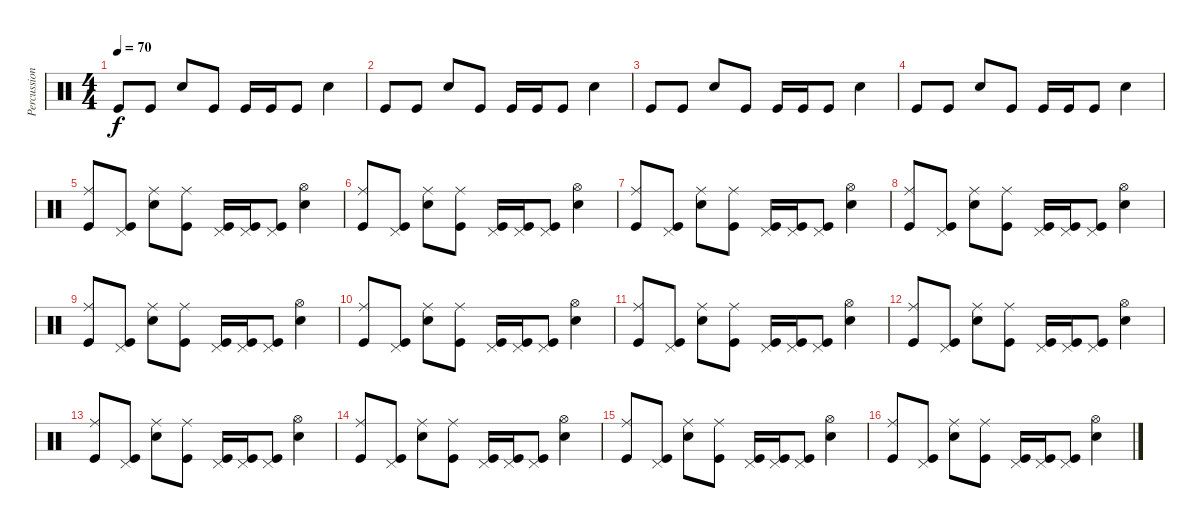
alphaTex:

\track ("Percussion" "Percussion") {instrument percussion}
\staff {score}
\articulation defaults
\ts (4 4)
\tempo 70
\clef neutral
\ks c "Kick (hit)".8{dy f} "Kick (hit)".8 "Hand Clap (hit)".8 "Kick (hit)".8 "Kick (hit)".16 "Kick (hit)".16 "Kick (hit)".8 "Hand Clap (hit)".4
|
"Kick (hit)".8 "Kick (hit)".8 "Hand Clap (hit)".8 "Kick (hit)".8 "Kick (hit)".16 "Kick (hit)".16 "Kick (hit)".8 "Hand Clap (hit)".4 |
"Kick (hit)".8 "Kick (hit)".8 "Hand Clap (hit)".8 "Kick (hit)".8 "Kick (hit)".16 "Kick (hit)".16 "Kick (hit)".8 "Hand Clap (hit)".4 |
"Kick (hit)".8 "Kick (hit)".8 "Hand Clap (hit)".8 "Kick (hit)".8 "Kick (hit)".16 "Kick (hit)".16 "Kick (hit)".8 "Hand Clap (hit)".4 |
("Kick (hit)" "Ride (middle)").8 ("Kick (hit)" "Pedal Hi-Hat (hit)").8 ("Hand Clap (hit)" "Ride (middle)").8 ("Kick (hit)" "Ride (middle)").8 ("Kick (hit)" "Pedal Hi-Hat (hit)").16 ("Kick (hit)" "Pedal Hi-Hat (hit)").16 ("Kick (hit)" "Pedal Hi-Hat (hit)").8 ("Hand Clap (hit)" "Hi-Hat (open)").4 |
("Kick (hit)" "Ride (middle)").8 ("Kick (hit)" "Pedal Hi-Hat (hit)").8 ("Hand Clap (hit)" "Ride (middle)").8 ("Kick (hit)" "Ride (middle)").8 ("Kick (hit)" "Pedal Hi-Hat (hit)").16 ("Kick (hit)" "Pedal Hi-Hat (hit)").16 ("Kick (hit)" "Pedal Hi-Hat (hit)").8 ("Hand Clap (hit)" "Hi-Hat (open)").4 |
("Kick (hit)" "Ride (middle)").8 ("Kick (hit)" "Pedal Hi-Hat (hit)").8 ("Hand Clap (hit)" "Ride (middle)").8 ("Kick (hit)" "Ride (middle)").8 ("Kick (hit)" "Pedal Hi-Hat (hit)").16 ("Kick (hit)" "Pedal Hi-Hat (hit)").16 ("Kick (hit)" "Pedal Hi-Hat (hit)").8 ("Hand Clap (hit)" "Hi-Hat (open)").4 |
("Kick (hit)" "Ride (middle)").8 ("Kick (hit)" "Pedal Hi-Hat (hit)").8 ("Hand Clap (hit)" "Ride (middle)").8 ("Kick (hit)" "Ride (middle)").8 ("Kick (hit)" "Pedal Hi-Hat (hit)").16 ("Kick (hit)" "Pedal Hi-Hat (hit)").16 ("Kick (hit)" "Pedal Hi-Hat (hit)").8 ("Hand Clap (hit)" "Hi-Hat (open)").4 |
("Kick (hit)" "Ride (middle)").8 ("Kick (hit)" "Pedal Hi-Hat (hit)").8 ("Hand Clap (hit)" "Ride (middle)").8 ("Kick (hit)" "Ride (middle)").8 ("Kick (hit)" "Pedal Hi-Hat (hit)").16 ("Kick (hit)" "Pedal Hi-Hat (hit)").16 ("Kick (hit)" "Pedal Hi-Hat (hit)").8 ("Hand Clap (hit)" "Hi-Hat (open)").4 |
("Kick (hit)" "Ride (middle)").8 ("Kick (hit)" "Pedal Hi-Hat (hit)").8 ("Hand Clap (hit)" "Ride (middle)").8 ("Kick (hit)" "Ride (middle)").8 ("Kick (hit)" "Pedal Hi-Hat (hit)").16 ("Kick (hit)" "Pedal Hi-Hat (hit)").16 ("Kick (hit)" "Pedal Hi-Hat (hit)").8 ("Hand Clap (hit)" "Hi-Hat (open)").4 |
("Kick (hit)" "Ride (middle)").8 ("Kick (hit)" "Pedal Hi-Hat (hit)").8 ("Hand Clap (hit)" "Ride (middle)").8 ("Kick (hit)" "Ride (middle)").8 ("Kick (hit)" "Pedal Hi-Hat (hit)").16 ("Kick (hit)" "Pedal Hi-Hat (hit)").16 ("Kick (hit)" "Pedal Hi-Hat (hit)").8 ("Hand Clap (hit)" "Hi-Hat (open)").4 |
("Kick (hit)" "Ride (middle)").8 ("Kick (hit)" "Pedal Hi-Hat (hit)").8 ("Hand Clap (hit)" "Ride (middle)").8 ("Kick (hit)" "Ride (middle)").8 ("Kick (hit)" "Pedal Hi-Hat (hit)").16 ("Kick (hit)" "Pedal Hi-Hat (hit)").16 ("Kick (hit)" "Pedal Hi-Hat (hit)").8 ("Hand Clap (hit)" "Hi-Hat (open)").4 |
("Kick (hit)" "Ride (middle)").8 ("Kick (hit)" "Pedal Hi-Hat (hit)").8 ("Hand Clap (hit)" "Ride (middle)").8 ("Kick (hit)" "Ride (middle)").8 ("Kick (hit)" "Pedal Hi-Hat (hit)").16 ("Kick (hit)" "Pedal Hi-Hat (hit)").16 ("Kick (hit)" "Pedal Hi-Hat (hit)").8 ("Hand Clap (hit)" "Hi-Hat (open)").4 |
("Kick (hit)" "Ride (middle)").8 ("Kick (hit)" "Pedal Hi-Hat (hit)").8 ("Hand Clap (hit)" "Ride (middle)").8 ("Kick (hit)" "Ride (middle)").8 ("Kick (hit)" "Pedal Hi-Hat (hit)").16 ("Kick (hit)" "Pedal Hi-Hat (hit)").16 ("Kick (hit)" "Pedal Hi-Hat (hit)").8 ("Hand Clap (hit)" "Hi-Hat (open)").4 |
("Kick (hit)" "Ride (middle)").8 ("Kick (hit)" "Pedal Hi-Hat (hit)").8 ("Hand Clap (hit)" "Ride (middle)").8 ("Kick (hit)" "Ride (middle)").8 ("Kick (hit)" "Pedal Hi-Hat (hit)").16 ("Kick (hit)" "Pedal Hi-Hat (hit)").16 ("Kick (hit)" "Pedal Hi-Hat (hit)").8 ("Hand Clap (hit)" "Hi-Hat (open)").4 |
("Kick (hit)" "Ride (middle)").8 ("Kick (hit)" "Pedal Hi-Hat (hit)").8 ("Hand Clap (hit)" "Ride (middle)").8 ("Kick (hit)" "Ride (middle)").8 ("Kick (hit)" "Pedal Hi-Hat (hit)").16 ("Kick (hit)" "Pedal Hi-Hat (hit)").16 ("Kick (hit)" "Pedal Hi-Hat (hit)").8 ("Hand Clap (hit)" "Hi-Hat (open)").4
